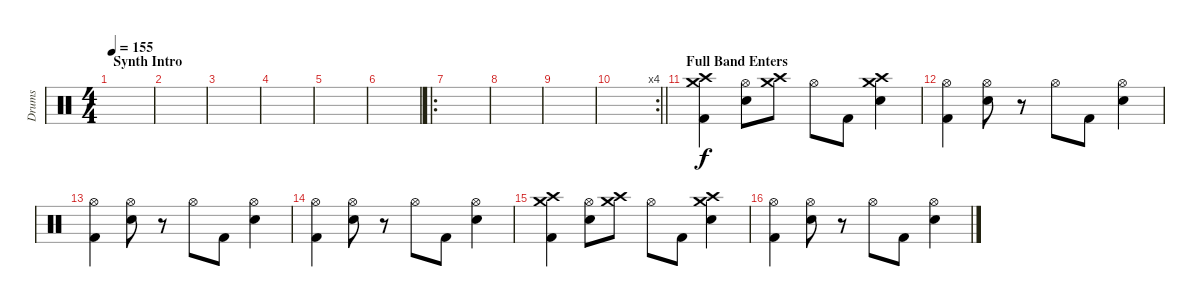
\track ("Drums" "Drums") {instrument percussion}
\staff {score}
\articulation defaults
\ts (4 4)
\section ("" "Synth Intro")
\tempo 155
\clef neutral
\ks c
|
|
|
|
|
|
\ro
|
|
|
\rc 4
\barLineRight lightlight
|
\section ("" "Full Band Enters")
("Crash high (hit)" "Crash medium (hit)" "Kick (hit) 2").4 ("Hi-Hat (open)" "Electric Snare (hit)").8 ("Crash high (hit)" "Crash medium (hit)").8 "Hi-Hat (open)".8 "Kick (hit) 2".8 ("Crash high (hit)" "Crash medium (hit)" "Electric Snare (hit)").4 |
("Hi-Hat (open)" "Kick (hit) 2").4 ("Hi-Hat (open)" "Electric Snare (hit)").8 r.8 "Hi-Hat (open)".8 "Kick (hit) 2".8 ("Hi-Hat (open)" "Electric Snare (hit)").4 |
("Hi-Hat (open)" "Kick (hit) 2").4 ("Hi-Hat (open)" "Electric Snare (hit)").8 r.8 "Hi-Hat (open)".8 "Kick (hit) 2".8 ("Hi-Hat (open)" "Electric Snare (hit)").4 |
("Hi-Hat (open)" "Kick (hit) 2").4 ("Hi-Hat (open)" "Electric Snare (hit)").8 r.8 "Hi-Hat (open)".8 "Kick (hit) 2".8 ("Hi-Hat (open)" "Electric Snare (hit)").4 |
("Crash high (hit)" "Crash medium (hit)" "Kick (hit) 2").4 ("Hi-Hat (open)" "Electric Snare (hit)").8 ("Crash high (hit)" "Crash medium (hit)").8 "Hi-Hat (open)".8 "Kick (hit) 2".8 ("Crash high (hit)" "Crash medium (hit)" "Electric Snare (hit)").4 |
("Hi-Hat (open)" "Kick (hit) 2").4 ("Hi-Hat (open)" "Electric Snare (hit)").8 r.8 "Hi-Hat (open)".8 "Kick (hit) 2".8 ("Hi-Hat (open)" "Electric Snare (hit)").4
